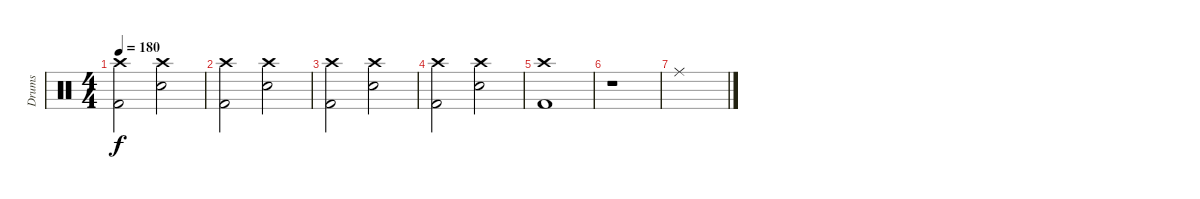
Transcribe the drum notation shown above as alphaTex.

\track ("Drums" "Drums") {instrument percussion}
\staff {score}
\articulation defaults
\ts (4 4)
\tempo 180
\clef neutral
\ks c
("Crash high (hit)" "Kick (hit) 2").2{dy f} ("Crash high (hit)" "Snare (hit) 2").2 |
("Crash high (hit)" "Kick (hit) 2").2 ("Crash high (hit)" "Snare (hit) 2").2 |
("Kick (hit) 2" "Crash high (hit)").2 ("Crash high (hit)" "Snare (hit) 2").2 |
("Kick (hit) 2" "Crash high (hit)").2 ("Crash high (hit)" "Snare (hit) 2").2 |
("Crash high (hit)" "Kick (hit) 2").1 |
r.1 |
"Ride (middle)".1
